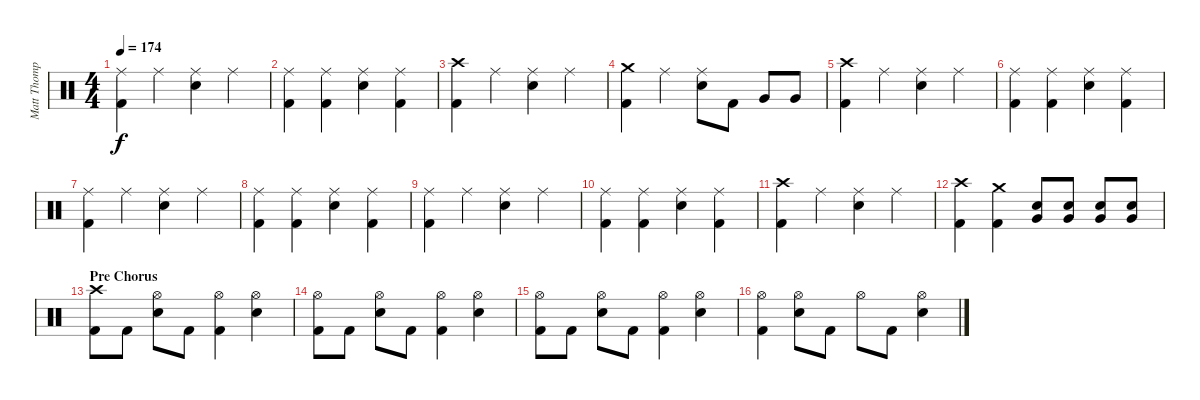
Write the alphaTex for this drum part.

\track ("Matt Thompson" "Matt Thomp") {instrument percussion}
\staff {score}
\articulation defaults
\ts (4 4)
\tempo 174
\clef neutral
\ks c
("Ride (middle)" "Kick (hit) 2").4{dy f} "Ride (middle)".4 ("Ride (middle)" "Snare (hit) 2").4 "Ride (middle)".4 |
("Ride (middle)" "Kick (hit) 2").4 ("Ride (middle)" "Kick (hit) 2").4 ("Ride (middle)" "Snare (hit) 2").4 ("Ride (middle)" "Kick (hit) 2").4 |
("Crash high (hit)" "Kick (hit) 2").4 "Ride (middle)".4 ("Ride (middle)" "Snare (hit) 2").4 "Ride (middle)".4 |
("Crash medium (hit)" "Kick (hit) 2").4 "Ride (middle)".4 ("Ride (middle)" "Snare (hit) 2").8 "Kick (hit) 2".8 "Very Low Tom (hit)".8 "Very Low Tom (hit)".8 |
("Crash high (hit)" "Kick (hit) 2").4 "Ride (middle)".4 ("Ride (middle)" "Snare (hit) 2").4 "Ride (middle)".4 |
("Ride (middle)" "Kick (hit) 2").4 ("Ride (middle)" "Kick (hit) 2").4 ("Ride (middle)" "Snare (hit) 2").4 ("Ride (middle)" "Kick (hit) 2").4 |
("Ride (middle)" "Kick (hit) 2").4 "Ride (middle)".4 ("Ride (middle)" "Snare (hit) 2").4 "Ride (middle)".4 |
("Ride (middle)" "Kick (hit) 2").4 ("Ride (middle)" "Kick (hit) 2").4 ("Ride (middle)" "Snare (hit) 2").4 ("Ride (middle)" "Kick (hit) 2").4 |
("Ride (middle)" "Kick (hit) 2").4 "Ride (middle)".4 ("Ride (middle)" "Snare (hit) 2").4 "Ride (middle)".4 |
("Ride (middle)" "Kick (hit) 2").4 ("Ride (middle)" "Kick (hit) 2").4 ("Ride (middle)" "Snare (hit) 2").4 ("Ride (middle)" "Kick (hit) 2").4 |
("Crash high (hit)" "Kick (hit) 2").4 "Ride (middle)".4 ("Ride (middle)" "Snare (hit) 2").4 "Ride (middle)".4 |
("Crash high (hit)" "Kick (hit) 2").4 ("Crash medium (hit)" "Kick (hit) 2").4 ("Very Low Tom (hit)" "Snare (hit) 2").8 ("Very Low Tom (hit)" "Snare (hit) 2").8 ("Very Low Tom (hit)" "Snare (hit) 2").8 ("Very Low Tom (hit)" "Snare (hit) 2").8 |
\section ("" "Pre Chorus")
("Crash high (hit)" "Kick (hit) 2").8 "Kick (hit) 2".8 ("Hi-Hat (open)" "Snare (hit) 2").8 "Kick (hit) 2".8 ("Hi-Hat (open)" "Kick (hit) 2").4 ("Hi-Hat (open)" "Snare (hit) 2").4 |
("Hi-Hat (open)" "Kick (hit) 2").8 "Kick (hit) 2".8 ("Hi-Hat (open)" "Snare (hit) 2").8 "Kick (hit) 2".8 ("Hi-Hat (open)" "Kick (hit) 2").4 ("Hi-Hat (open)" "Snare (hit) 2").4 |
("Hi-Hat (open)" "Kick (hit) 2").8 "Kick (hit) 2".8 ("Hi-Hat (open)" "Snare (hit) 2").8 "Kick (hit) 2".8 ("Hi-Hat (open)" "Kick (hit) 2").4 ("Hi-Hat (open)" "Snare (hit) 2").4 |
("Hi-Hat (open)" "Kick (hit) 2").4 ("Hi-Hat (open)" "Snare (hit) 2").8 "Kick (hit) 2".8 "Hi-Hat (open)".8 "Kick (hit) 2".8 ("Hi-Hat (open)" "Snare (hit) 2").4
